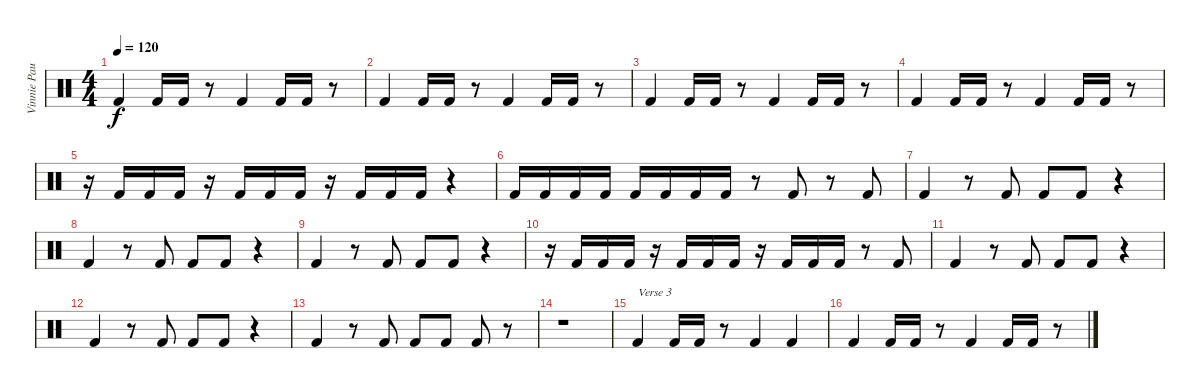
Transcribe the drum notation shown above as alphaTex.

\track ("Vinnie Paul bass drum" "Vinnie Pau") {instrument percussion}
\staff {score}
\articulation defaults
\ts (4 4)
\tempo 120
\clef neutral
\ks c "Kick (hit) 2".4{dy f} "Kick (hit) 2".16 "Kick (hit) 2".16
r.8 "Kick (hit) 2".4 "Kick (hit) 2".16 "Kick (hit) 2".16 r.8 |
"Kick (hit) 2".4 "Kick (hit) 2".16 "Kick (hit) 2".16 r.8 "Kick (hit) 2".4 "Kick (hit) 2".16 "Kick (hit) 2".16 r.8 |
"Kick (hit) 2".4 "Kick (hit) 2".16 "Kick (hit) 2".16 r.8 "Kick (hit) 2".4 "Kick (hit) 2".16 "Kick (hit) 2".16 r.8 |
"Kick (hit) 2".4 "Kick (hit) 2".16 "Kick (hit) 2".16 r.8 "Kick (hit) 2".4 "Kick (hit) 2".16 "Kick (hit) 2".16 r.8 |
r.16 "Kick (hit) 2".16 "Kick (hit) 2".16 "Kick (hit) 2".16 r.16 "Kick (hit) 2".16 "Kick (hit) 2".16 "Kick (hit) 2".16 r.16 "Kick (hit) 2".16 "Kick (hit) 2".16 "Kick (hit) 2".16 r.4 |
"Kick (hit) 2".16 "Kick (hit) 2".16 "Kick (hit) 2".16 "Kick (hit) 2".16 "Kick (hit) 2".16 "Kick (hit) 2".16 "Kick (hit) 2".16 "Kick (hit) 2".16 r.8 "Kick (hit) 2".8 r.8 "Kick (hit) 2".8 |
"Kick (hit) 2".4 r.8 "Kick (hit) 2".8 "Kick (hit) 2".8 "Kick (hit) 2".8 r.4 |
"Kick (hit) 2".4 r.8 "Kick (hit) 2".8 "Kick (hit) 2".8 "Kick (hit) 2".8 r.4 |
"Kick (hit) 2".4 r.8 "Kick (hit) 2".8 "Kick (hit) 2".8 "Kick (hit) 2".8 r.4 |
r.16 "Kick (hit) 2".16 "Kick (hit) 2".16 "Kick (hit) 2".16 r.16 "Kick (hit) 2".16 "Kick (hit) 2".16 "Kick (hit) 2".16 r.16 "Kick (hit) 2".16 "Kick (hit) 2".16 "Kick (hit) 2".16 r.8 "Kick (hit) 2".8 |
"Kick (hit) 2".4 r.8 "Kick (hit) 2".8 "Kick (hit) 2".8 "Kick (hit) 2".8 r.4 |
"Kick (hit) 2".4 r.8 "Kick (hit) 2".8 "Kick (hit) 2".8 "Kick (hit) 2".8 r.4 |
"Kick (hit) 2".4 r.8 "Kick (hit) 2".8 "Kick (hit) 2".8 "Kick (hit) 2".8 "Kick (hit) 2".8 r.8 |
r.1 |
"Kick (hit) 2".4{txt "Verse 3"} "Kick (hit) 2".16 "Kick (hit) 2".16 r.8 "Kick (hit) 2".4 "Kick (hit) 2".4 |
"Kick (hit) 2".4 "Kick (hit) 2".16 "Kick (hit) 2".16 r.8 "Kick (hit) 2".4 "Kick (hit) 2".16 "Kick (hit) 2".16 r.8
